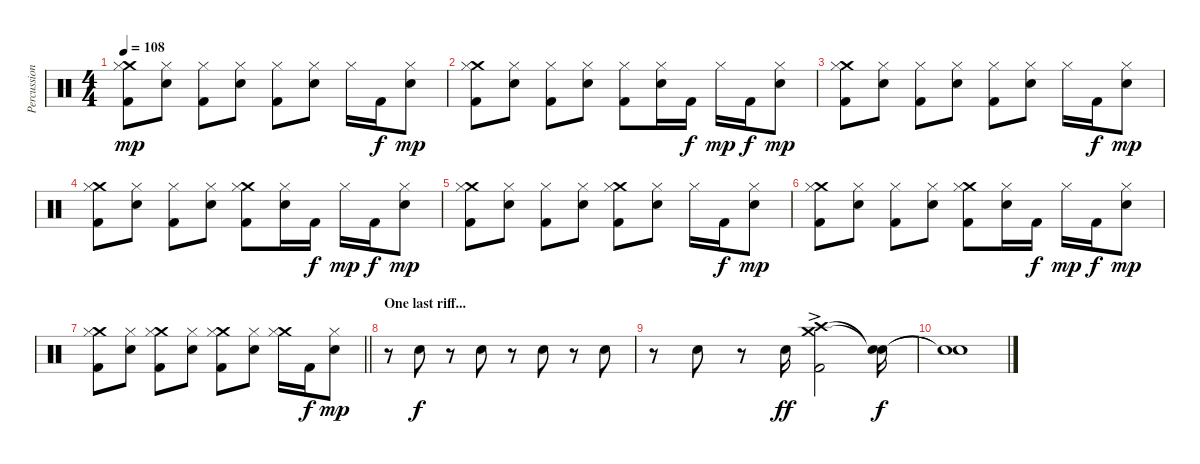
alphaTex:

\track ("Percussion" "Percussion") {instrument percussion}
\staff {score}
\articulation defaults
\ts (4 4)
\tempo 108
\clef neutral
\ks c
("Crash medium (hit)" "Hi-Hat (closed)" "Kick (hit) 2").8{dy mp} ("Hi-Hat (closed)" "Snare (hit) 2").8 ("Hi-Hat (closed)" "Kick (hit) 2").8 ("Hi-Hat (closed)" "Snare (hit) 2").8 ("Hi-Hat (closed)" "Kick (hit) 2").8 ("Hi-Hat (closed)" "Snare (hit) 2").8 "Hi-Hat (closed)".16 "Kick (hit) 2".16{dy f} ("Hi-Hat (closed)" "Snare (hit) 2").8{dy mp} |
("Crash medium (hit)" "Hi-Hat (closed)" "Kick (hit) 2").8 ("Hi-Hat (closed)" "Snare (hit) 2").8 ("Hi-Hat (closed)" "Kick (hit) 2").8 ("Hi-Hat (closed)" "Snare (hit) 2").8 ("Hi-Hat (closed)" "Kick (hit) 2").8 ("Hi-Hat (closed)" "Snare (hit) 2").16 "Kick (hit) 2".16{dy f} "Hi-Hat (closed)".16{dy mp} "Kick (hit) 2".16{dy f} ("Hi-Hat (closed)" "Snare (hit) 2").8{dy mp} |
("Crash medium (hit)" "Hi-Hat (closed)" "Kick (hit) 2").8 ("Hi-Hat (closed)" "Snare (hit) 2").8 ("Hi-Hat (closed)" "Kick (hit) 2").8 ("Hi-Hat (closed)" "Snare (hit) 2").8 ("Hi-Hat (closed)" "Kick (hit) 2").8 ("Hi-Hat (closed)" "Snare (hit) 2").8 "Hi-Hat (closed)".16 "Kick (hit) 2".16{dy f} ("Hi-Hat (closed)" "Snare (hit) 2").8{dy mp} |
("Crash medium (hit)" "Hi-Hat (closed)" "Kick (hit) 2").8 ("Hi-Hat (closed)" "Snare (hit) 2").8 ("Hi-Hat (closed)" "Kick (hit) 2").8 ("Hi-Hat (closed)" "Snare (hit) 2").8 ("Crash medium (hit)" "Hi-Hat (closed)" "Kick (hit) 2").8 ("Hi-Hat (closed)" "Snare (hit) 2").16 "Kick (hit) 2".16{dy f} "Hi-Hat (closed)".16{dy mp} "Kick (hit) 2".16{dy f} ("Hi-Hat (closed)" "Snare (hit) 2").8{dy mp} |
("Crash medium (hit)" "Hi-Hat (closed)" "Kick (hit) 2").8 ("Hi-Hat (closed)" "Snare (hit) 2").8 ("Hi-Hat (closed)" "Kick (hit) 2").8 ("Hi-Hat (closed)" "Snare (hit) 2").8 ("Crash medium (hit)" "Hi-Hat (closed)" "Kick (hit) 2").8 ("Hi-Hat (closed)" "Snare (hit) 2").8 "Hi-Hat (closed)".16 "Kick (hit) 2".16{dy f} ("Hi-Hat (closed)" "Snare (hit) 2").8{dy mp} |
("Crash medium (hit)" "Hi-Hat (closed)" "Kick (hit) 2").8 ("Hi-Hat (closed)" "Snare (hit) 2").8 ("Hi-Hat (closed)" "Kick (hit) 2").8 ("Hi-Hat (closed)" "Snare (hit) 2").8 ("Crash medium (hit)" "Hi-Hat (closed)" "Kick (hit) 2").8 ("Hi-Hat (closed)" "Snare (hit) 2").16 "Kick (hit) 2".16{dy f} "Hi-Hat (closed)".16{dy mp} "Kick (hit) 2".16{dy f} ("Hi-Hat (closed)" "Snare (hit) 2").8{dy mp} |
\barLineRight lightlight
("Crash medium (hit)" "Hi-Hat (closed)" "Kick (hit) 2").8 ("Hi-Hat (closed)" "Snare (hit) 2").8 ("Crash medium (hit)" "Hi-Hat (closed)" "Kick (hit) 2").8 ("Hi-Hat (closed)" "Snare (hit) 2").8 ("Crash medium (hit)" "Hi-Hat (closed)" "Kick (hit) 2").8 ("Hi-Hat (closed)" "Snare (hit) 2").8 ("Crash medium (hit)" "Hi-Hat (closed)").16 "Kick (hit) 2".16{dy f} ("Hi-Hat (closed)" "Snare (hit) 2").8{dy mp} |
\section ("" "One last riff...")
r.8 "Snare (hit) 2".8{dy f} r.8 "Snare (hit) 2".8 r.8 "Snare (hit) 2".8 r.8 "Snare (hit) 2".8 |
r.8 "Snare (hit) 2".8 r.8 "Snare (hit) 2".16{dy ff} ("Crash high (hit)"{ac} "Crash medium (hit)"{ac} "Kick (hit) 2"{ac}).2 ("Snare (hit)"{t} "Snare (hit)"{t}).16{dy f} |
("Snare (hit)"{t} "Snare (hit)"{t}).1
